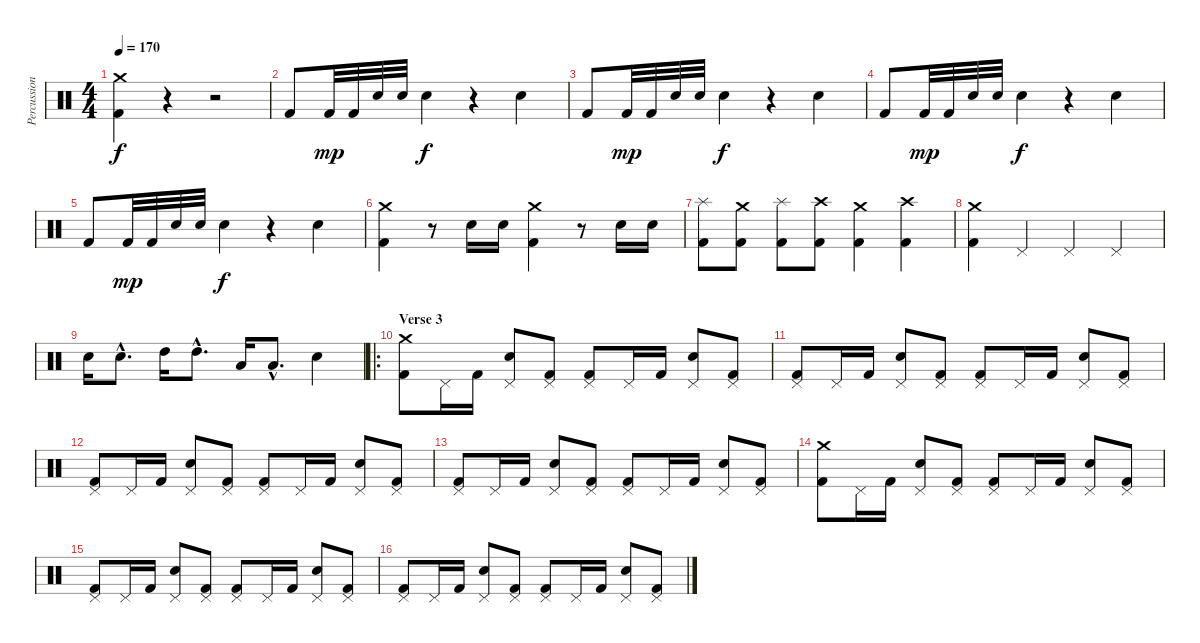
\track ("Percussions" "Percussion") {instrument percussion}
\staff {score}
\articulation defaults
\ts (4 4)
\tempo 170
\clef neutral
\ks c
("Crash medium (hit)" "Kick (hit) 2").4{dy f} r.4 r.2 |
"Kick (hit) 2".8 "Kick (hit) 2".32{dy mp} "Kick (hit) 2".32 "Snare (hit) 2".32 "Snare (hit) 2".32 "Snare (hit) 2".4{dy f} r.4 "Snare (hit) 2".4 |
"Kick (hit) 2".8 "Kick (hit) 2".32{dy mp} "Kick (hit) 2".32 "Snare (hit) 2".32 "Snare (hit) 2".32 "Snare (hit) 2".4{dy f} r.4 "Snare (hit) 2".4 |
"Kick (hit) 2".8 "Kick (hit) 2".32{dy mp} "Kick (hit) 2".32 "Snare (hit) 2".32 "Snare (hit) 2".32 "Snare (hit) 2".4{dy f} r.4 "Snare (hit) 2".4 |
"Kick (hit) 2".8 "Kick (hit) 2".32{dy mp} "Kick (hit) 2".32 "Snare (hit) 2".32 "Snare (hit) 2".32 "Snare (hit) 2".4{dy f} r.4 "Snare (hit) 2".4 |
("Crash medium (hit)" "Kick (hit) 2").4 r.8 "Snare (hit) 2".16 "Snare (hit) 2".16 ("Crash medium (hit)" "Kick (hit) 2").4 r.8 "Snare (hit) 2".16 "Snare (hit) 2".16 |
("Splash (hit)" "Kick (hit) 2").8 ("Crash medium (hit)" "Kick (hit) 2").8 ("Splash (hit)" "Kick (hit) 2").8 ("Crash high (hit)" "Kick (hit) 2").8 ("Crash medium (hit)" "Kick (hit) 2").4 ("Crash high (hit)" "Kick (hit) 2").4 |
("Crash medium (hit)" "Kick (hit) 2").4 "Pedal Hi-Hat (hit)".4 "Pedal Hi-Hat (hit)".4 "Pedal Hi-Hat (hit)".4 |
"Snare (hit) 2".16 "Snare (hit) 2"{hac}.8{d} "High Tom (hit)".16 "High Tom (hit)"{hac}.8{d} "Low Tom (hit)".16 "Low Tom (hit)"{hac}.8{d} "Snare (hit) 2".4 |
\ro
\section ("" "Verse 3")
("Crash medium (hit)" "Kick (hit) 2").8 "Pedal Hi-Hat (hit)".16 "Kick (hit) 2".16 ("Pedal Hi-Hat (hit)" "Snare (hit) 2").8 ("Pedal Hi-Hat (hit)" "Kick (hit) 2").8 ("Pedal Hi-Hat (hit)" "Kick (hit) 2").8 "Pedal Hi-Hat (hit)".16 "Kick (hit) 2".16 ("Pedal Hi-Hat (hit)" "Snare (hit) 2").8 ("Pedal Hi-Hat (hit)" "Kick (hit) 2").8 |
("Pedal Hi-Hat (hit)" "Kick (hit) 2").8 "Pedal Hi-Hat (hit)".16 "Kick (hit) 2".16 ("Pedal Hi-Hat (hit)" "Snare (hit) 2").8 ("Pedal Hi-Hat (hit)" "Kick (hit) 2").8 ("Pedal Hi-Hat (hit)" "Kick (hit) 2").8 "Pedal Hi-Hat (hit)".16 "Kick (hit) 2".16 ("Pedal Hi-Hat (hit)" "Snare (hit) 2").8 ("Pedal Hi-Hat (hit)" "Kick (hit) 2").8 |
("Pedal Hi-Hat (hit)" "Kick (hit) 2").8 "Pedal Hi-Hat (hit)".16 "Kick (hit) 2".16 ("Pedal Hi-Hat (hit)" "Snare (hit) 2").8 ("Pedal Hi-Hat (hit)" "Kick (hit) 2").8 ("Pedal Hi-Hat (hit)" "Kick (hit) 2").8 "Pedal Hi-Hat (hit)".16 "Kick (hit) 2".16 ("Pedal Hi-Hat (hit)" "Snare (hit) 2").8 ("Pedal Hi-Hat (hit)" "Kick (hit) 2").8 |
("Pedal Hi-Hat (hit)" "Kick (hit) 2").8 "Pedal Hi-Hat (hit)".16 "Kick (hit) 2".16 ("Pedal Hi-Hat (hit)" "Snare (hit) 2").8 ("Pedal Hi-Hat (hit)" "Kick (hit) 2").8 ("Pedal Hi-Hat (hit)" "Kick (hit) 2").8 "Pedal Hi-Hat (hit)".16 "Kick (hit) 2".16 ("Pedal Hi-Hat (hit)" "Snare (hit) 2").8 ("Pedal Hi-Hat (hit)" "Kick (hit) 2").8 |
("Crash medium (hit)" "Kick (hit) 2").8 "Pedal Hi-Hat (hit)".16 "Kick (hit) 2".16 ("Pedal Hi-Hat (hit)" "Snare (hit) 2").8 ("Pedal Hi-Hat (hit)" "Kick (hit) 2").8 ("Pedal Hi-Hat (hit)" "Kick (hit) 2").8 "Pedal Hi-Hat (hit)".16 "Kick (hit) 2".16 ("Pedal Hi-Hat (hit)" "Snare (hit) 2").8 ("Pedal Hi-Hat (hit)" "Kick (hit) 2").8 |
("Pedal Hi-Hat (hit)" "Kick (hit) 2").8 "Pedal Hi-Hat (hit)".16 "Kick (hit) 2".16 ("Pedal Hi-Hat (hit)" "Snare (hit) 2").8 ("Pedal Hi-Hat (hit)" "Kick (hit) 2").8 ("Pedal Hi-Hat (hit)" "Kick (hit) 2").8 "Pedal Hi-Hat (hit)".16 "Kick (hit) 2".16 ("Pedal Hi-Hat (hit)" "Snare (hit) 2").8 ("Pedal Hi-Hat (hit)" "Kick (hit) 2").8 |
("Pedal Hi-Hat (hit)" "Kick (hit) 2").8 "Pedal Hi-Hat (hit)".16 "Kick (hit) 2".16 ("Pedal Hi-Hat (hit)" "Snare (hit) 2").8 ("Pedal Hi-Hat (hit)" "Kick (hit) 2").8 ("Pedal Hi-Hat (hit)" "Kick (hit) 2").8 "Pedal Hi-Hat (hit)".16 "Kick (hit) 2".16 ("Pedal Hi-Hat (hit)" "Snare (hit) 2").8 ("Pedal Hi-Hat (hit)" "Kick (hit) 2").8
